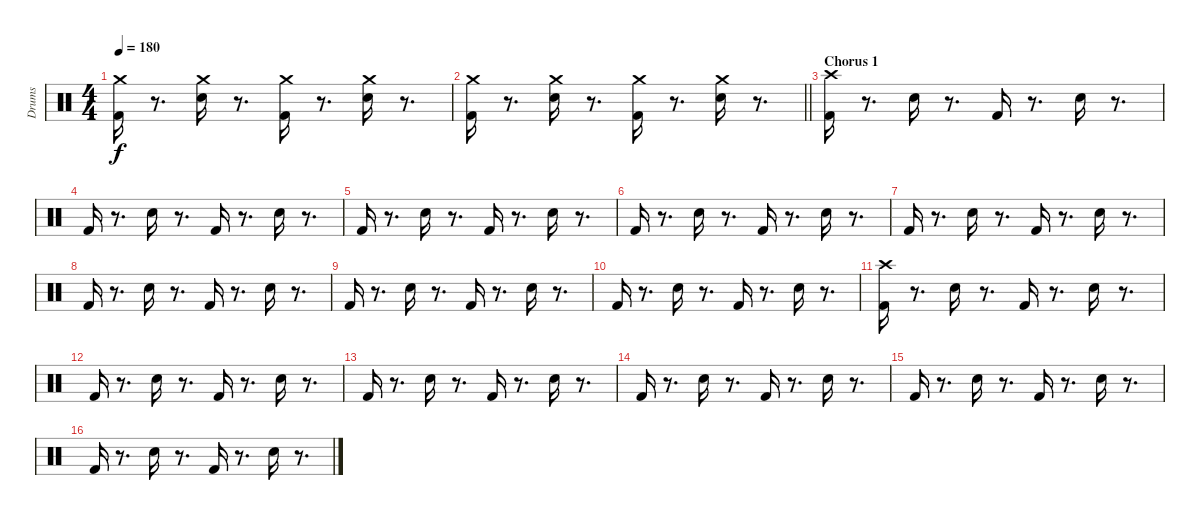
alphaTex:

\track ("Drums" "Drums") {instrument percussion}
\staff {score}
\articulation defaults
\ts (4 4)
\tempo 180
\clef neutral
\ks c
("Kick (hit) 2" "Crash medium (hit)").16{dy f} r.8{d} ("Snare (hit) 2" "Crash medium (hit)").16 r.8{d} ("Kick (hit) 2" "Crash medium (hit)").16 r.8{d} ("Snare (hit) 2" "Crash medium (hit)").16 r.8{d} |
\barLineRight lightlight
("Kick (hit) 2" "Crash medium (hit)").16 r.8{d} ("Snare (hit) 2" "Crash medium (hit)").16 r.8{d} ("Kick (hit) 2" "Crash medium (hit)").16 r.8{d} ("Snare (hit) 2" "Crash medium (hit)").16 r.8{d} |
\section ("" "Chorus 1")
("Kick (hit) 2" "Crash high (hit)").16 r.8{d} "Snare (hit) 2".16 r.8{d} "Kick (hit) 2".16 r.8{d} "Snare (hit) 2".16 r.8{d} |
"Kick (hit) 2".16 r.8{d} "Snare (hit) 2".16 r.8{d} "Kick (hit) 2".16 r.8{d} "Snare (hit) 2".16 r.8{d} |
"Kick (hit) 2".16 r.8{d} "Snare (hit) 2".16 r.8{d} "Kick (hit) 2".16 r.8{d} "Snare (hit) 2".16 r.8{d} |
"Kick (hit) 2".16 r.8{d} "Snare (hit) 2".16 r.8{d} "Kick (hit) 2".16 r.8{d} "Snare (hit) 2".16 r.8{d} |
"Kick (hit) 2".16 r.8{d} "Snare (hit) 2".16 r.8{d} "Kick (hit) 2".16 r.8{d} "Snare (hit) 2".16 r.8{d} |
"Kick (hit) 2".16 r.8{d} "Snare (hit) 2".16 r.8{d} "Kick (hit) 2".16 r.8{d} "Snare (hit) 2".16 r.8{d} |
"Kick (hit) 2".16 r.8{d} "Snare (hit) 2".16 r.8{d} "Kick (hit) 2".16 r.8{d} "Snare (hit) 2".16 r.8{d} |
"Kick (hit) 2".16 r.8{d} "Snare (hit) 2".16 r.8{d} "Kick (hit) 2".16 r.8{d} "Snare (hit) 2".16 r.8{d} |
("Kick (hit) 2" "Crash high (hit)").16 r.8{d} "Snare (hit) 2".16 r.8{d} "Kick (hit) 2".16 r.8{d} "Snare (hit) 2".16 r.8{d} |
"Kick (hit) 2".16 r.8{d} "Snare (hit) 2".16 r.8{d} "Kick (hit) 2".16 r.8{d} "Snare (hit) 2".16 r.8{d} |
"Kick (hit) 2".16 r.8{d} "Snare (hit) 2".16 r.8{d} "Kick (hit) 2".16 r.8{d} "Snare (hit) 2".16 r.8{d} |
"Kick (hit) 2".16 r.8{d} "Snare (hit) 2".16 r.8{d} "Kick (hit) 2".16 r.8{d} "Snare (hit) 2".16 r.8{d} |
"Kick (hit) 2".16 r.8{d} "Snare (hit) 2".16 r.8{d} "Kick (hit) 2".16 r.8{d} "Snare (hit) 2".16 r.8{d} |
"Kick (hit) 2".16 r.8{d} "Snare (hit) 2".16 r.8{d} "Kick (hit) 2".16 r.8{d} "Snare (hit) 2".16 r.8{d}
